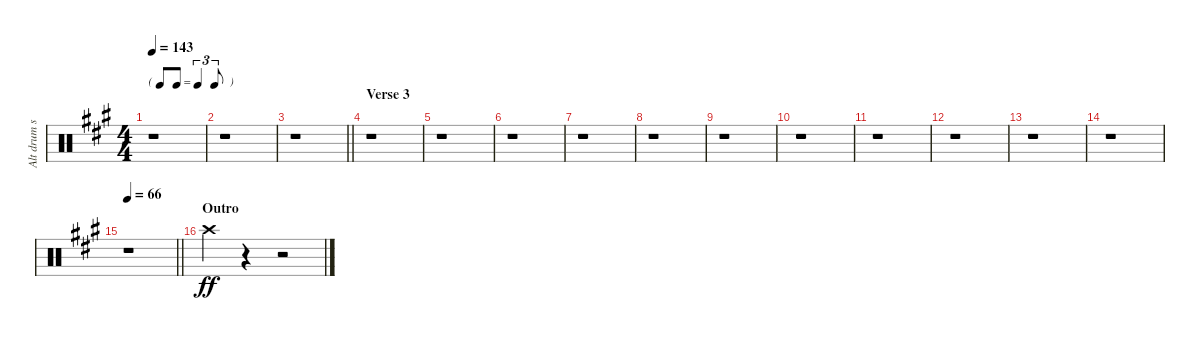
\track ("Alt drum sounds" "Alt drum s") {instrument percussion}
\staff {score}
\articulation defaults
\ts (4 4)
\tf triplet8th
\tempo 143
\clef neutral
\ks a
r.1{dy f} |
r.1 |
\barLineRight lightlight
r.1 |
\section ("" "Verse 3")
r.1 |
r.1 |
r.1 |
r.1 |
r.1 |
r.1 |
r.1 |
r.1 |
r.1 |
r.1 |
r.1 |
\tempo 66
\barLineRight lightlight
r.1 |
\section ("" "Outro")
"Crash high (hit)".4{dy ff volume 16} r.4 r.2
